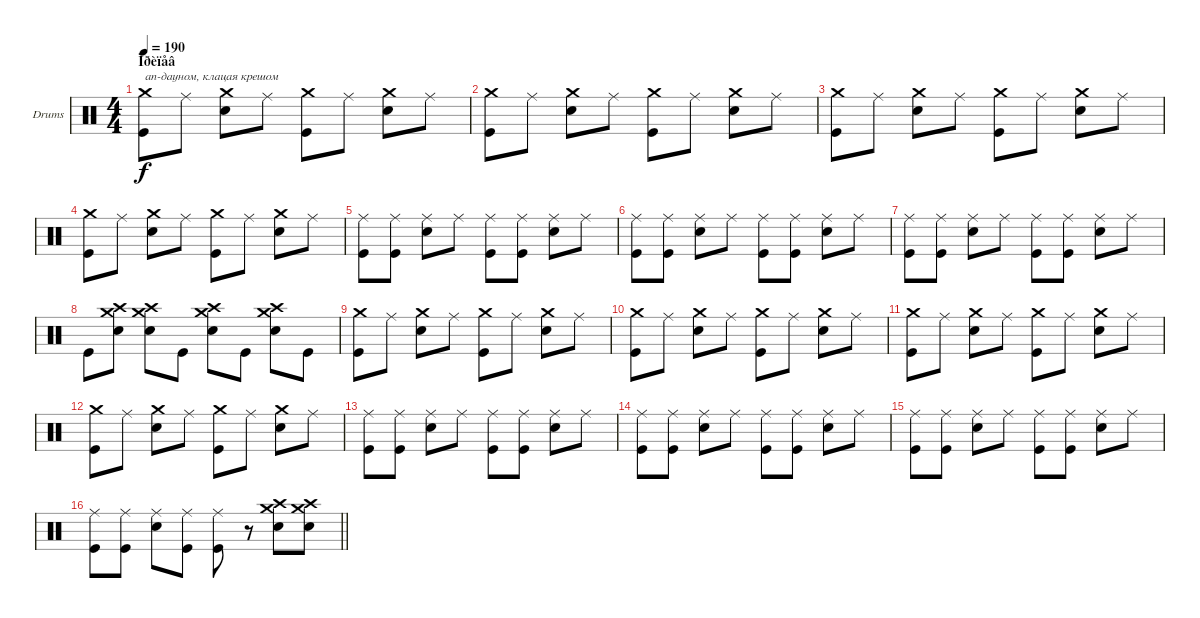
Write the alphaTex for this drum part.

\bracketExtendMode groupsimilarinstruments
\firstSystemTrackNameOrientation horizontal
\otherSystemsTrackNameOrientation horizontal
\track ("Drumkit" "Drums") {instrument percussion}
\staff {score}
\articulation defaults
\ts (4 4)
\section ("" "Ïðèïåâ")
\tempo 190
\clef neutral
\ks c
("Kick (hit)" "Crash medium (hit)").8{txt "ап-дауном, клацая крешом" dy f} "Ride (middle)".8 ("Snare (hit) 2" "Crash medium (hit)").8 "Ride (middle)".8 ("Kick (hit)" "Crash medium (hit)").8 "Ride (middle)".8 ("Snare (hit) 2" "Crash medium (hit)").8 "Ride (middle)".8 |
("Kick (hit)" "Crash medium (hit)").8 "Ride (middle)".8 ("Snare (hit) 2" "Crash medium (hit)").8 "Ride (middle)".8 ("Kick (hit)" "Crash medium (hit)").8 "Ride (middle)".8 ("Snare (hit) 2" "Crash medium (hit)").8 "Ride (middle)".8 |
("Kick (hit)" "Crash medium (hit)").8 "Ride (middle)".8 ("Snare (hit) 2" "Crash medium (hit)").8 "Ride (middle)".8 ("Kick (hit)" "Crash medium (hit)").8 "Ride (middle)".8 ("Snare (hit) 2" "Crash medium (hit)").8 "Ride (middle)".8 |
("Kick (hit)" "Crash medium (hit)").8 "Ride (middle)".8 ("Snare (hit) 2" "Crash medium (hit)").8 "Ride (middle)".8 ("Kick (hit)" "Crash medium (hit)").8 "Ride (middle)".8 ("Snare (hit) 2" "Crash medium (hit)").8 "Ride (middle)".8 |
("Kick (hit)" "Ride (middle)").8 ("Ride (middle)" "Kick (hit)").8 ("Snare (hit) 2" "Ride (middle)").8 "Ride (middle)".8 ("Kick (hit)" "Ride (middle)").8 ("Ride (middle)" "Kick (hit)").8 ("Snare (hit) 2" "Ride (middle)").8 "Ride (middle)".8 |
("Kick (hit)" "Ride (middle)").8 ("Ride (middle)" "Kick (hit)").8 ("Snare (hit) 2" "Ride (middle)").8 "Ride (middle)".8 ("Kick (hit)" "Ride (middle)").8 ("Ride (middle)" "Kick (hit)").8 ("Snare (hit) 2" "Ride (middle)").8 "Ride (middle)".8 |
("Kick (hit)" "Ride (middle)").8 ("Ride (middle)" "Kick (hit)").8 ("Snare (hit) 2" "Ride (middle)").8 "Ride (middle)".8 ("Kick (hit)" "Ride (middle)").8 ("Ride (middle)" "Kick (hit)").8 ("Snare (hit) 2" "Ride (middle)").8 "Ride (middle)".8 |
"Kick (hit)".8 ("Crash high (hit)" "Crash medium (hit)" "Snare (hit) 2").8 ("Crash high (hit)" "Crash medium (hit)" "Snare (hit) 2").8 "Kick (hit)".8 ("Crash high (hit)" "Crash medium (hit)" "Snare (hit) 2").8 "Kick (hit)".8 ("Crash high (hit)" "Crash medium (hit)" "Snare (hit) 2").8 "Kick (hit)".8 |
("Kick (hit)" "Crash medium (hit)").8 "Ride (middle)".8 ("Snare (hit) 2" "Crash medium (hit)").8 "Ride (middle)".8 ("Kick (hit)" "Crash medium (hit)").8 "Ride (middle)".8 ("Snare (hit) 2" "Crash medium (hit)").8 "Ride (middle)".8 |
("Kick (hit)" "Crash medium (hit)").8 "Ride (middle)".8 ("Snare (hit) 2" "Crash medium (hit)").8 "Ride (middle)".8 ("Kick (hit)" "Crash medium (hit)").8 "Ride (middle)".8 ("Snare (hit) 2" "Crash medium (hit)").8 "Ride (middle)".8 |
("Kick (hit)" "Crash medium (hit)").8 "Ride (middle)".8 ("Snare (hit) 2" "Crash medium (hit)").8 "Ride (middle)".8 ("Kick (hit)" "Crash medium (hit)").8 "Ride (middle)".8 ("Snare (hit) 2" "Crash medium (hit)").8 "Ride (middle)".8 |
("Kick (hit)" "Crash medium (hit)").8 "Ride (middle)".8 ("Snare (hit) 2" "Crash medium (hit)").8 "Ride (middle)".8 ("Kick (hit)" "Crash medium (hit)").8 "Ride (middle)".8 ("Snare (hit) 2" "Crash medium (hit)").8 "Ride (middle)".8 |
("Kick (hit)" "Ride (middle)").8 ("Ride (middle)" "Kick (hit)").8 ("Snare (hit) 2" "Ride (middle)").8 "Ride (middle)".8 ("Kick (hit)" "Ride (middle)").8 ("Ride (middle)" "Kick (hit)").8 ("Snare (hit) 2" "Ride (middle)").8 "Ride (middle)".8 |
("Kick (hit)" "Ride (middle)").8 ("Ride (middle)" "Kick (hit)").8 ("Snare (hit) 2" "Ride (middle)").8 "Ride (middle)".8 ("Kick (hit)" "Ride (middle)").8 ("Ride (middle)" "Kick (hit)").8 ("Snare (hit) 2" "Ride (middle)").8 "Ride (middle)".8 |
("Kick (hit)" "Ride (middle)").8 ("Ride (middle)" "Kick (hit)").8 ("Snare (hit) 2" "Ride (middle)").8 "Ride (middle)".8 ("Kick (hit)" "Ride (middle)").8 ("Ride (middle)" "Kick (hit)").8 ("Snare (hit) 2" "Ride (middle)").8 "Ride (middle)".8 |
\barLineRight lightlight
("Kick (hit)" "Ride (middle)").8 ("Ride (middle)" "Kick (hit)").8 ("Snare (hit) 2" "Ride (middle)").8 ("Ride (middle)" "Kick (hit)").8 ("Kick (hit)" "Ride (middle)").8 r.8 ("Crash medium (hit)" "Crash high (hit)" "Snare (hit) 2").8 ("Crash high (hit)" "Crash medium (hit)" "Snare (hit) 2").8
